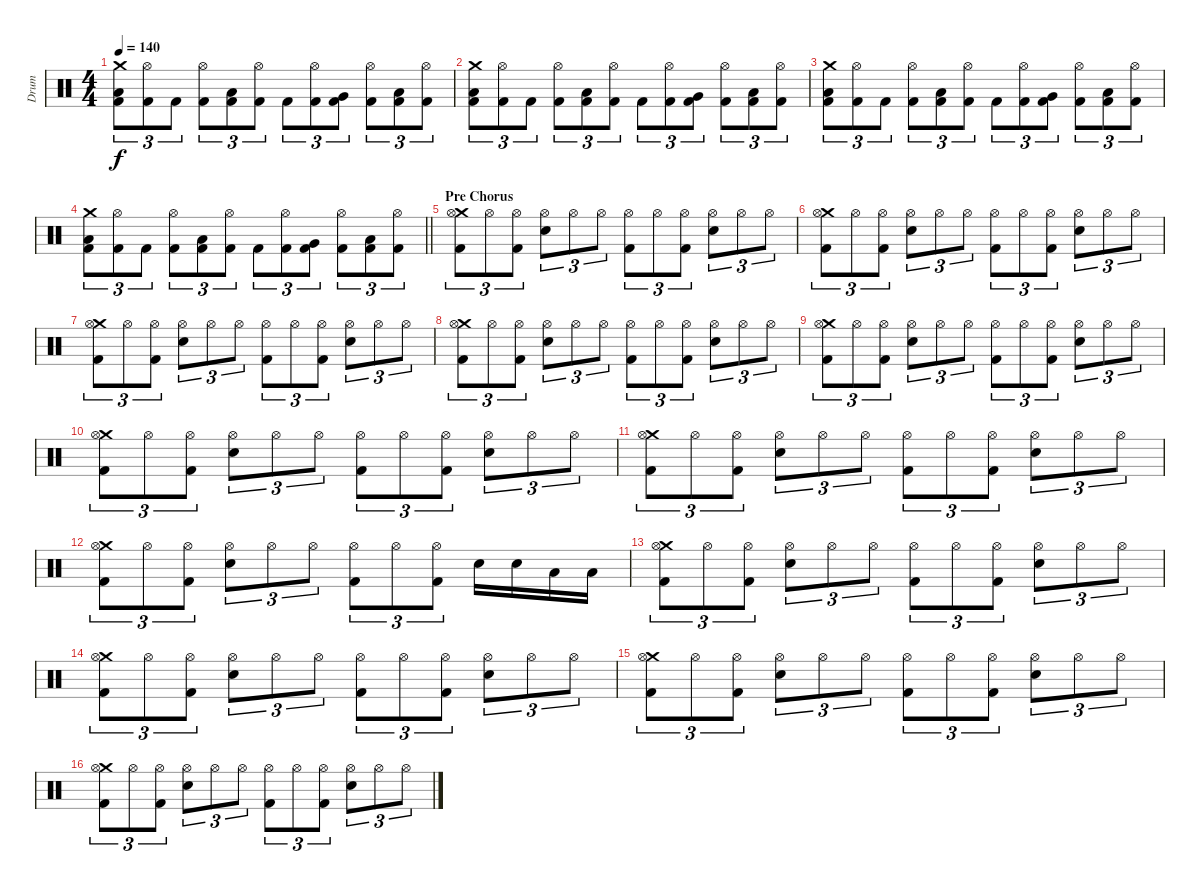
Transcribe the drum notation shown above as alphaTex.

\track ("Drum" "Drum") {instrument percussion}
\staff {score}
\articulation defaults
\ts (4 4)
\tempo 140
\clef neutral
\ks c
("Crash medium (hit)" "Low Tom (hit)" "Kick (hit) 2").8{tu (3 2) dy f} ("Hi-Hat (open)" "Kick (hit) 2").8{tu (3 2)} "Kick (hit) 2".8{tu (3 2)} ("Hi-Hat (open)" "Kick (hit) 2").8{tu (3 2)} ("Low Tom (hit)" "Kick (hit) 2").8{tu (3 2)} ("Hi-Hat (open)" "Kick (hit) 2").8{tu (3 2)} "Kick (hit) 2".8{tu (3 2)} ("Hi-Hat (open)" "Kick (hit) 2").8{tu (3 2)} ("Very Low Tom (hit)" "Kick (hit) 2").8{tu (3 2)} ("Hi-Hat (open)" "Kick (hit) 2").8{tu (3 2)} ("Low Floor Tom (hit)" "Kick (hit) 2").8{tu (3 2)} ("Hi-Hat (open)" "Kick (hit) 2").8{tu (3 2)} |
("Crash medium (hit)" "Low Tom (hit)" "Kick (hit) 2").8{tu (3 2)} ("Hi-Hat (open)" "Kick (hit) 2").8{tu (3 2)} "Kick (hit) 2".8{tu (3 2)} ("Hi-Hat (open)" "Kick (hit) 2").8{tu (3 2)} ("Low Tom (hit)" "Kick (hit) 2").8{tu (3 2)} ("Hi-Hat (open)" "Kick (hit) 2").8{tu (3 2)} "Kick (hit) 2".8{tu (3 2)} ("Hi-Hat (open)" "Kick (hit) 2").8{tu (3 2)} ("Very Low Tom (hit)" "Kick (hit) 2").8{tu (3 2)} ("Hi-Hat (open)" "Kick (hit) 2").8{tu (3 2)} ("Low Floor Tom (hit)" "Kick (hit) 2").8{tu (3 2)} ("Hi-Hat (open)" "Kick (hit) 2").8{tu (3 2)} |
("Crash medium (hit)" "Low Tom (hit)" "Kick (hit) 2").8{tu (3 2)} ("Hi-Hat (open)" "Kick (hit) 2").8{tu (3 2)} "Kick (hit) 2".8{tu (3 2)} ("Hi-Hat (open)" "Kick (hit) 2").8{tu (3 2)} ("Low Tom (hit)" "Kick (hit) 2").8{tu (3 2)} ("Hi-Hat (open)" "Kick (hit) 2").8{tu (3 2)} "Kick (hit) 2".8{tu (3 2)} ("Hi-Hat (open)" "Kick (hit) 2").8{tu (3 2)} ("Very Low Tom (hit)" "Kick (hit) 2").8{tu (3 2)} ("Hi-Hat (open)" "Kick (hit) 2").8{tu (3 2)} ("Low Floor Tom (hit)" "Kick (hit) 2").8{tu (3 2)} ("Hi-Hat (open)" "Kick (hit) 2").8{tu (3 2)} |
\barLineRight lightlight
("Crash medium (hit)" "Low Tom (hit)" "Kick (hit) 2").8{tu (3 2)} ("Hi-Hat (open)" "Kick (hit) 2").8{tu (3 2)} "Kick (hit) 2".8{tu (3 2)} ("Hi-Hat (open)" "Kick (hit) 2").8{tu (3 2)} ("Low Tom (hit)" "Kick (hit) 2").8{tu (3 2)} ("Hi-Hat (open)" "Kick (hit) 2").8{tu (3 2)} "Kick (hit) 2".8{tu (3 2)} ("Hi-Hat (open)" "Kick (hit) 2").8{tu (3 2)} ("Very Low Tom (hit)" "Kick (hit) 2").8{tu (3 2)} ("Hi-Hat (open)" "Kick (hit) 2").8{tu (3 2)} ("Low Floor Tom (hit)" "Kick (hit) 2").8{tu (3 2)} ("Hi-Hat (open)" "Kick (hit) 2").8{tu (3 2)} |
\section ("" "Pre Chorus")
("Crash medium (hit)" "Hi-Hat (open)" "Kick (hit) 2").8{tu (3 2)} "Hi-Hat (open)".8{tu (3 2)} ("Hi-Hat (open)" "Kick (hit) 2").8{tu (3 2)} ("Hi-Hat (open)" "Electric Snare (hit)").8{tu (3 2)} "Hi-Hat (open)".8{tu (3 2)} "Hi-Hat (open)".8{tu (3 2)} ("Hi-Hat (open)" "Kick (hit) 2").8{tu (3 2)} "Hi-Hat (open)".8{tu (3 2)} ("Hi-Hat (open)" "Kick (hit) 2").8{tu (3 2)} ("Hi-Hat (open)" "Electric Snare (hit)").8{tu (3 2)} "Hi-Hat (open)".8{tu (3 2)} "Hi-Hat (open)".8{tu (3 2)} |
("Crash medium (hit)" "Hi-Hat (open)" "Kick (hit) 2").8{tu (3 2)} "Hi-Hat (open)".8{tu (3 2)} ("Hi-Hat (open)" "Kick (hit) 2").8{tu (3 2)} ("Hi-Hat (open)" "Electric Snare (hit)").8{tu (3 2)} "Hi-Hat (open)".8{tu (3 2)} "Hi-Hat (open)".8{tu (3 2)} ("Hi-Hat (open)" "Kick (hit) 2").8{tu (3 2)} "Hi-Hat (open)".8{tu (3 2)} ("Hi-Hat (open)" "Kick (hit) 2").8{tu (3 2)} ("Hi-Hat (open)" "Electric Snare (hit)").8{tu (3 2)} "Hi-Hat (open)".8{tu (3 2)} "Hi-Hat (open)".8{tu (3 2)} |
("Crash medium (hit)" "Hi-Hat (open)" "Kick (hit) 2").8{tu (3 2)} "Hi-Hat (open)".8{tu (3 2)} ("Hi-Hat (open)" "Kick (hit) 2").8{tu (3 2)} ("Hi-Hat (open)" "Electric Snare (hit)").8{tu (3 2)} "Hi-Hat (open)".8{tu (3 2)} "Hi-Hat (open)".8{tu (3 2)} ("Hi-Hat (open)" "Kick (hit) 2").8{tu (3 2)} "Hi-Hat (open)".8{tu (3 2)} ("Hi-Hat (open)" "Kick (hit) 2").8{tu (3 2)} ("Hi-Hat (open)" "Electric Snare (hit)").8{tu (3 2)} "Hi-Hat (open)".8{tu (3 2)} "Hi-Hat (open)".8{tu (3 2)} |
("Crash medium (hit)" "Hi-Hat (open)" "Kick (hit) 2").8{tu (3 2)} "Hi-Hat (open)".8{tu (3 2)} ("Hi-Hat (open)" "Kick (hit) 2").8{tu (3 2)} ("Hi-Hat (open)" "Electric Snare (hit)").8{tu (3 2)} "Hi-Hat (open)".8{tu (3 2)} "Hi-Hat (open)".8{tu (3 2)} ("Hi-Hat (open)" "Kick (hit) 2").8{tu (3 2)} "Hi-Hat (open)".8{tu (3 2)} ("Hi-Hat (open)" "Kick (hit) 2").8{tu (3 2)} ("Hi-Hat (open)" "Electric Snare (hit)").8{tu (3 2)} "Hi-Hat (open)".8{tu (3 2)} "Hi-Hat (open)".8{tu (3 2)} |
("Crash medium (hit)" "Hi-Hat (open)" "Kick (hit) 2").8{tu (3 2)} "Hi-Hat (open)".8{tu (3 2)} ("Hi-Hat (open)" "Kick (hit) 2").8{tu (3 2)} ("Hi-Hat (open)" "Electric Snare (hit)").8{tu (3 2)} "Hi-Hat (open)".8{tu (3 2)} "Hi-Hat (open)".8{tu (3 2)} ("Hi-Hat (open)" "Kick (hit) 2").8{tu (3 2)} "Hi-Hat (open)".8{tu (3 2)} ("Hi-Hat (open)" "Kick (hit) 2").8{tu (3 2)} ("Hi-Hat (open)" "Electric Snare (hit)").8{tu (3 2)} "Hi-Hat (open)".8{tu (3 2)} "Hi-Hat (open)".8{tu (3 2)} |
("Crash medium (hit)" "Hi-Hat (open)" "Kick (hit) 2").8{tu (3 2)} "Hi-Hat (open)".8{tu (3 2)} ("Hi-Hat (open)" "Kick (hit) 2").8{tu (3 2)} ("Hi-Hat (open)" "Electric Snare (hit)").8{tu (3 2)} "Hi-Hat (open)".8{tu (3 2)} "Hi-Hat (open)".8{tu (3 2)} ("Hi-Hat (open)" "Kick (hit) 2").8{tu (3 2)} "Hi-Hat (open)".8{tu (3 2)} ("Hi-Hat (open)" "Kick (hit) 2").8{tu (3 2)} ("Hi-Hat (open)" "Electric Snare (hit)").8{tu (3 2)} "Hi-Hat (open)".8{tu (3 2)} "Hi-Hat (open)".8{tu (3 2)} |
("Crash medium (hit)" "Hi-Hat (open)" "Kick (hit) 2").8{tu (3 2)} "Hi-Hat (open)".8{tu (3 2)} ("Hi-Hat (open)" "Kick (hit) 2").8{tu (3 2)} ("Hi-Hat (open)" "Electric Snare (hit)").8{tu (3 2)} "Hi-Hat (open)".8{tu (3 2)} "Hi-Hat (open)".8{tu (3 2)} ("Hi-Hat (open)" "Kick (hit) 2").8{tu (3 2)} "Hi-Hat (open)".8{tu (3 2)} ("Hi-Hat (open)" "Kick (hit) 2").8{tu (3 2)} ("Hi-Hat (open)" "Electric Snare (hit)").8{tu (3 2)} "Hi-Hat (open)".8{tu (3 2)} "Hi-Hat (open)".8{tu (3 2)} |
("Crash medium (hit)" "Hi-Hat (open)" "Kick (hit) 2").8{tu (3 2)} "Hi-Hat (open)".8{tu (3 2)} ("Hi-Hat (open)" "Kick (hit) 2").8{tu (3 2)} ("Hi-Hat (open)" "Electric Snare (hit)").8{tu (3 2)} "Hi-Hat (open)".8{tu (3 2)} "Hi-Hat (open)".8{tu (3 2)} ("Hi-Hat (open)" "Kick (hit) 2").8{tu (3 2)} "Hi-Hat (open)".8{tu (3 2)} ("Hi-Hat (open)" "Kick (hit) 2").8{tu (3 2)} "Electric Snare (hit)".16 "Electric Snare (hit)".16 "Low Tom (hit)".16 "Low Tom (hit)".16 |
("Crash medium (hit)" "Hi-Hat (open)" "Kick (hit) 2").8{tu (3 2)} "Hi-Hat (open)".8{tu (3 2)} ("Hi-Hat (open)" "Kick (hit) 2").8{tu (3 2)} ("Hi-Hat (open)" "Electric Snare (hit)").8{tu (3 2)} "Hi-Hat (open)".8{tu (3 2)} "Hi-Hat (open)".8{tu (3 2)} ("Hi-Hat (open)" "Kick (hit) 2").8{tu (3 2)} "Hi-Hat (open)".8{tu (3 2)} ("Hi-Hat (open)" "Kick (hit) 2").8{tu (3 2)} ("Hi-Hat (open)" "Electric Snare (hit)").8{tu (3 2)} "Hi-Hat (open)".8{tu (3 2)} "Hi-Hat (open)".8{tu (3 2)} |
("Crash medium (hit)" "Hi-Hat (open)" "Kick (hit) 2").8{tu (3 2)} "Hi-Hat (open)".8{tu (3 2)} ("Hi-Hat (open)" "Kick (hit) 2").8{tu (3 2)} ("Hi-Hat (open)" "Electric Snare (hit)").8{tu (3 2)} "Hi-Hat (open)".8{tu (3 2)} "Hi-Hat (open)".8{tu (3 2)} ("Hi-Hat (open)" "Kick (hit) 2").8{tu (3 2)} "Hi-Hat (open)".8{tu (3 2)} ("Hi-Hat (open)" "Kick (hit) 2").8{tu (3 2)} ("Hi-Hat (open)" "Electric Snare (hit)").8{tu (3 2)} "Hi-Hat (open)".8{tu (3 2)} "Hi-Hat (open)".8{tu (3 2)} |
("Crash medium (hit)" "Hi-Hat (open)" "Kick (hit) 2").8{tu (3 2)} "Hi-Hat (open)".8{tu (3 2)} ("Hi-Hat (open)" "Kick (hit) 2").8{tu (3 2)} ("Hi-Hat (open)" "Electric Snare (hit)").8{tu (3 2)} "Hi-Hat (open)".8{tu (3 2)} "Hi-Hat (open)".8{tu (3 2)} ("Hi-Hat (open)" "Kick (hit) 2").8{tu (3 2)} "Hi-Hat (open)".8{tu (3 2)} ("Hi-Hat (open)" "Kick (hit) 2").8{tu (3 2)} ("Hi-Hat (open)" "Electric Snare (hit)").8{tu (3 2)} "Hi-Hat (open)".8{tu (3 2)} "Hi-Hat (open)".8{tu (3 2)} |
("Crash medium (hit)" "Hi-Hat (open)" "Kick (hit) 2").8{tu (3 2)} "Hi-Hat (open)".8{tu (3 2)} ("Hi-Hat (open)" "Kick (hit) 2").8{tu (3 2)} ("Hi-Hat (open)" "Electric Snare (hit)").8{tu (3 2)} "Hi-Hat (open)".8{tu (3 2)} "Hi-Hat (open)".8{tu (3 2)} ("Hi-Hat (open)" "Kick (hit) 2").8{tu (3 2)} "Hi-Hat (open)".8{tu (3 2)} ("Hi-Hat (open)" "Kick (hit) 2").8{tu (3 2)} ("Hi-Hat (open)" "Electric Snare (hit)").8{tu (3 2)} "Hi-Hat (open)".8{tu (3 2)} "Hi-Hat (open)".8{tu (3 2)}
